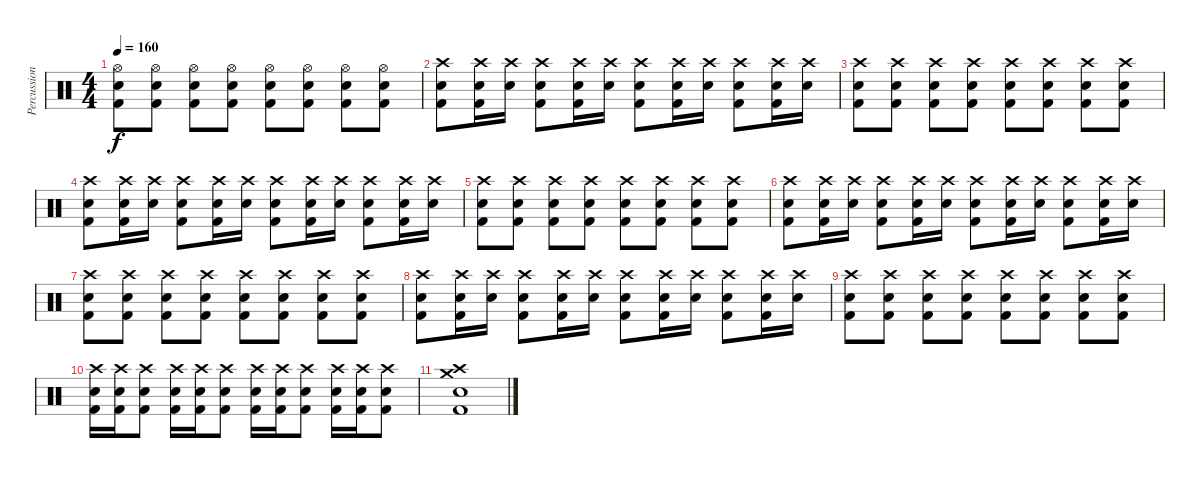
\track ("Percussion" "Percussion") {instrument percussion}
\staff {score}
\articulation defaults
\ts (4 4)
\tempo 160
\clef neutral
\ks c
("Hi-Hat (open)" "Electric Snare (hit)" "Kick (hit) 2").8{dy f} ("Hi-Hat (open)" "Electric Snare (hit)" "Kick (hit) 2").8 ("Hi-Hat (open)" "Electric Snare (hit)" "Kick (hit) 2").8 ("Hi-Hat (open)" "Electric Snare (hit)" "Kick (hit) 2").8 ("Hi-Hat (open)" "Electric Snare (hit)" "Kick (hit) 2").8 ("Hi-Hat (open)" "Electric Snare (hit)" "Kick (hit) 2").8 ("Hi-Hat (open)" "Electric Snare (hit)" "Kick (hit) 2").8 ("Hi-Hat (open)" "Electric Snare (hit)" "Kick (hit) 2").8 |
("Crash high (hit)" "Electric Snare (hit)" "Kick (hit) 2").8 ("Crash high (hit)" "Electric Snare (hit)" "Kick (hit) 2").16 ("Crash high (hit)" "Electric Snare (hit)").16 ("Crash high (hit)" "Electric Snare (hit)" "Kick (hit) 2").8 ("Crash high (hit)" "Electric Snare (hit)" "Kick (hit) 2").16 ("Crash high (hit)" "Electric Snare (hit)").16 ("Crash high (hit)" "Electric Snare (hit)" "Kick (hit) 2").8 ("Crash high (hit)" "Electric Snare (hit)" "Kick (hit) 2").16 ("Crash high (hit)" "Electric Snare (hit)").16 ("Crash high (hit)" "Electric Snare (hit)" "Kick (hit) 2").8 ("Crash high (hit)" "Electric Snare (hit)" "Kick (hit) 2").16 ("Crash high (hit)" "Electric Snare (hit)").16 |
("Crash high (hit)" "Electric Snare (hit)" "Kick (hit) 2").8 ("Crash high (hit)" "Electric Snare (hit)" "Kick (hit) 2").8 ("Crash high (hit)" "Electric Snare (hit)" "Kick (hit) 2").8 ("Crash high (hit)" "Electric Snare (hit)" "Kick (hit) 2").8 ("Crash high (hit)" "Electric Snare (hit)" "Kick (hit) 2").8 ("Crash high (hit)" "Electric Snare (hit)" "Kick (hit) 2").8 ("Crash high (hit)" "Electric Snare (hit)" "Kick (hit) 2").8 ("Crash high (hit)" "Electric Snare (hit)" "Kick (hit) 2").8 |
("Crash high (hit)" "Electric Snare (hit)" "Kick (hit) 2").8 ("Crash high (hit)" "Electric Snare (hit)" "Kick (hit) 2").16 ("Crash high (hit)" "Electric Snare (hit)").16 ("Crash high (hit)" "Electric Snare (hit)" "Kick (hit) 2").8 ("Crash high (hit)" "Electric Snare (hit)" "Kick (hit) 2").16 ("Crash high (hit)" "Electric Snare (hit)").16 ("Crash high (hit)" "Electric Snare (hit)" "Kick (hit) 2").8 ("Crash high (hit)" "Electric Snare (hit)" "Kick (hit) 2").16 ("Crash high (hit)" "Electric Snare (hit)").16 ("Crash high (hit)" "Electric Snare (hit)" "Kick (hit) 2").8 ("Crash high (hit)" "Electric Snare (hit)" "Kick (hit) 2").16 ("Crash high (hit)" "Electric Snare (hit)").16 |
("Crash high (hit)" "Electric Snare (hit)" "Kick (hit) 2").8 ("Crash high (hit)" "Electric Snare (hit)" "Kick (hit) 2").8 ("Crash high (hit)" "Electric Snare (hit)" "Kick (hit) 2").8 ("Crash high (hit)" "Electric Snare (hit)" "Kick (hit) 2").8 ("Crash high (hit)" "Electric Snare (hit)" "Kick (hit) 2").8 ("Crash high (hit)" "Electric Snare (hit)" "Kick (hit) 2").8 ("Crash high (hit)" "Electric Snare (hit)" "Kick (hit) 2").8 ("Crash high (hit)" "Electric Snare (hit)" "Kick (hit) 2").8 |
("Crash high (hit)" "Electric Snare (hit)" "Kick (hit) 2").8 ("Crash high (hit)" "Electric Snare (hit)" "Kick (hit) 2").16 ("Crash high (hit)" "Electric Snare (hit)").16 ("Crash high (hit)" "Electric Snare (hit)" "Kick (hit) 2").8 ("Crash high (hit)" "Electric Snare (hit)" "Kick (hit) 2").16 ("Crash high (hit)" "Electric Snare (hit)").16 ("Crash high (hit)" "Electric Snare (hit)" "Kick (hit) 2").8 ("Crash high (hit)" "Electric Snare (hit)" "Kick (hit) 2").16 ("Crash high (hit)" "Electric Snare (hit)").16 ("Crash high (hit)" "Electric Snare (hit)" "Kick (hit) 2").8 ("Crash high (hit)" "Electric Snare (hit)" "Kick (hit) 2").16 ("Crash high (hit)" "Electric Snare (hit)").16 |
("Crash high (hit)" "Electric Snare (hit)" "Kick (hit) 2").8 ("Crash high (hit)" "Electric Snare (hit)" "Kick (hit) 2").8 ("Crash high (hit)" "Electric Snare (hit)" "Kick (hit) 2").8 ("Crash high (hit)" "Electric Snare (hit)" "Kick (hit) 2").8 ("Crash high (hit)" "Electric Snare (hit)" "Kick (hit) 2").8 ("Crash high (hit)" "Electric Snare (hit)" "Kick (hit) 2").8 ("Crash high (hit)" "Electric Snare (hit)" "Kick (hit) 2").8 ("Crash high (hit)" "Electric Snare (hit)" "Kick (hit) 2").8 |
("Crash high (hit)" "Electric Snare (hit)" "Kick (hit) 2").8 ("Crash high (hit)" "Electric Snare (hit)" "Kick (hit) 2").16 ("Crash high (hit)" "Electric Snare (hit)").16 ("Crash high (hit)" "Electric Snare (hit)" "Kick (hit) 2").8 ("Crash high (hit)" "Electric Snare (hit)" "Kick (hit) 2").16 ("Crash high (hit)" "Electric Snare (hit)").16 ("Crash high (hit)" "Electric Snare (hit)" "Kick (hit) 2").8 ("Crash high (hit)" "Electric Snare (hit)" "Kick (hit) 2").16 ("Crash high (hit)" "Electric Snare (hit)").16 ("Crash high (hit)" "Electric Snare (hit)" "Kick (hit) 2").8 ("Crash high (hit)" "Electric Snare (hit)" "Kick (hit) 2").16 ("Crash high (hit)" "Electric Snare (hit)").16 |
("Crash high (hit)" "Electric Snare (hit)" "Kick (hit) 2").8 ("Crash high (hit)" "Electric Snare (hit)" "Kick (hit) 2").8 ("Crash high (hit)" "Electric Snare (hit)" "Kick (hit) 2").8 ("Crash high (hit)" "Electric Snare (hit)" "Kick (hit) 2").8 ("Crash high (hit)" "Electric Snare (hit)" "Kick (hit) 2").8 ("Crash high (hit)" "Electric Snare (hit)" "Kick (hit) 2").8 ("Crash high (hit)" "Electric Snare (hit)" "Kick (hit) 2").8 ("Crash high (hit)" "Electric Snare (hit)" "Kick (hit) 2").8 |
("Crash high (hit)" "Electric Snare (hit)" "Kick (hit) 2").16 ("Crash high (hit)" "Electric Snare (hit)" "Kick (hit) 2").16 ("Crash high (hit)" "Electric Snare (hit)" "Kick (hit) 2").8 ("Crash high (hit)" "Electric Snare (hit)" "Kick (hit) 2").16 ("Crash high (hit)" "Electric Snare (hit)" "Kick (hit) 2").16 ("Crash high (hit)" "Electric Snare (hit)" "Kick (hit) 2").8 ("Crash high (hit)" "Electric Snare (hit)" "Kick (hit) 2").16 ("Crash high (hit)" "Electric Snare (hit)" "Kick (hit) 2").16 ("Crash high (hit)" "Electric Snare (hit)" "Kick (hit) 2").8 ("Crash high (hit)" "Electric Snare (hit)" "Kick (hit) 2").16 ("Crash high (hit)" "Electric Snare (hit)" "Kick (hit) 2").16 ("Crash high (hit)" "Electric Snare (hit)" "Kick (hit) 2").8 |
("Crash high (hit)" "Crash medium (hit)" "Electric Snare (hit)" "Kick (hit) 2").1
